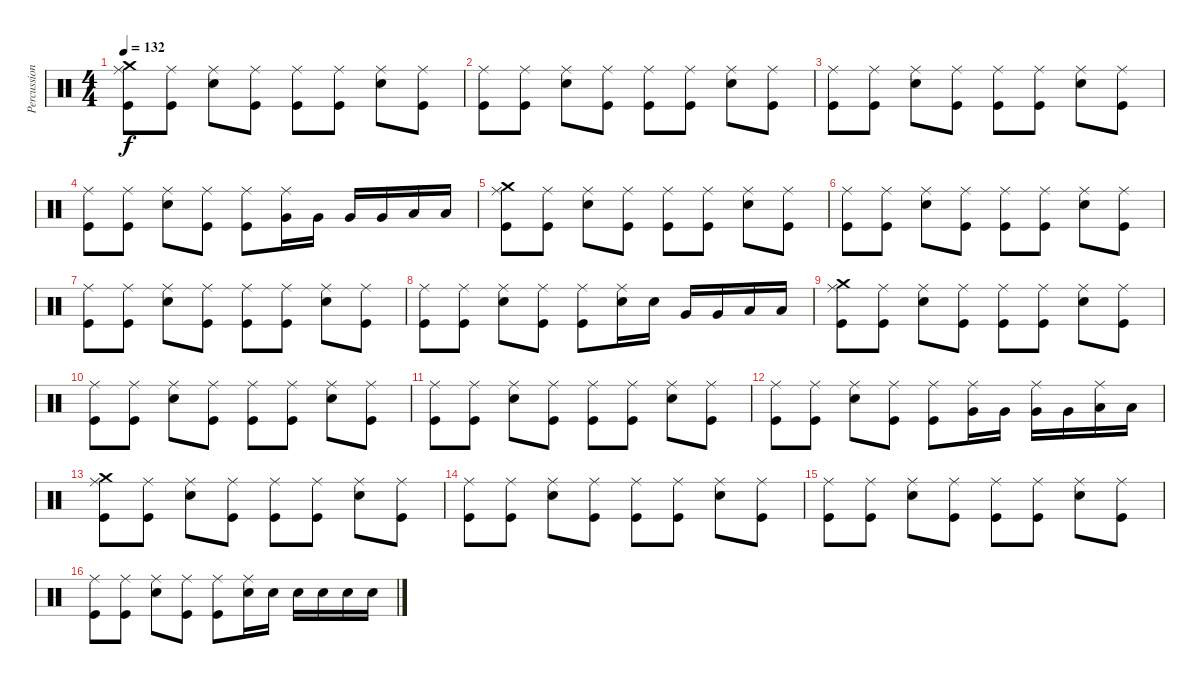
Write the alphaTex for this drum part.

\track ("Percussions" "Percussion") {instrument percussion}
\staff {score}
\articulation defaults
\ts (4 4)
\tempo 132
\clef neutral
\ks c
("Ride (middle)" "Crash medium (hit)" "Kick (hit)").8{dy f} ("Ride (middle)" "Kick (hit)").8 ("Ride (middle)" "Snare (hit) 2").8 ("Ride (middle)" "Kick (hit)").8 ("Ride (middle)" "Kick (hit)").8 ("Ride (middle)" "Kick (hit)").8 ("Ride (middle)" "Snare (hit) 2").8 ("Ride (middle)" "Kick (hit)").8 |
("Ride (middle)" "Kick (hit)").8 ("Ride (middle)" "Kick (hit)").8 ("Ride (middle)" "Snare (hit) 2").8 ("Ride (middle)" "Kick (hit)").8 ("Ride (middle)" "Kick (hit)").8 ("Ride (middle)" "Kick (hit)").8 ("Ride (middle)" "Snare (hit) 2").8 ("Ride (middle)" "Kick (hit)").8 |
("Ride (middle)" "Kick (hit)").8 ("Ride (middle)" "Kick (hit)").8 ("Ride (middle)" "Snare (hit) 2").8 ("Ride (middle)" "Kick (hit)").8 ("Ride (middle)" "Kick (hit)").8 ("Ride (middle)" "Kick (hit)").8 ("Ride (middle)" "Snare (hit) 2").8 ("Ride (middle)" "Kick (hit)").8 |
("Ride (middle)" "Kick (hit)").8 ("Ride (middle)" "Kick (hit)").8 ("Ride (middle)" "Snare (hit) 2").8 ("Ride (middle)" "Kick (hit)").8 ("Ride (middle)" "Kick (hit)").8 ("Ride (middle)" "Very Low Tom (hit)").16 "Very Low Tom (hit)".16 "Very Low Tom (hit)".16 "Very Low Tom (hit)".16 "Low Floor Tom (hit)".16 "Low Floor Tom (hit)".16 |
("Ride (middle)" "Crash medium (hit)" "Kick (hit)").8 ("Ride (middle)" "Kick (hit)").8 ("Ride (middle)" "Snare (hit) 2").8 ("Ride (middle)" "Kick (hit)").8 ("Ride (middle)" "Kick (hit)").8 ("Ride (middle)" "Kick (hit)").8 ("Ride (middle)" "Snare (hit) 2").8 ("Ride (middle)" "Kick (hit)").8 |
("Ride (middle)" "Kick (hit)").8 ("Ride (middle)" "Kick (hit)").8 ("Ride (middle)" "Snare (hit) 2").8 ("Ride (middle)" "Kick (hit)").8 ("Ride (middle)" "Kick (hit)").8 ("Ride (middle)" "Kick (hit)").8 ("Ride (middle)" "Snare (hit) 2").8 ("Ride (middle)" "Kick (hit)").8 |
("Ride (middle)" "Kick (hit)").8 ("Ride (middle)" "Kick (hit)").8 ("Ride (middle)" "Snare (hit) 2").8 ("Ride (middle)" "Kick (hit)").8 ("Ride (middle)" "Kick (hit)").8 ("Ride (middle)" "Kick (hit)").8 ("Ride (middle)" "Snare (hit) 2").8 ("Ride (middle)" "Kick (hit)").8 |
("Ride (middle)" "Kick (hit)").8 ("Ride (middle)" "Kick (hit)").8 ("Ride (middle)" "Snare (hit) 2").8 ("Ride (middle)" "Kick (hit)").8 ("Ride (middle)" "Kick (hit)").8 ("Ride (middle)" "Snare (hit) 2").16 "Snare (hit) 2".16 "Very Low Tom (hit)".16 "Very Low Tom (hit)".16 "Low Floor Tom (hit)".16 "Low Floor Tom (hit)".16 |
("Ride (middle)" "Crash medium (hit)" "Kick (hit)").8 ("Ride (middle)" "Kick (hit)").8 ("Ride (middle)" "Snare (hit) 2").8 ("Ride (middle)" "Kick (hit)").8 ("Ride (middle)" "Kick (hit)").8 ("Ride (middle)" "Kick (hit)").8 ("Ride (middle)" "Snare (hit) 2").8 ("Ride (middle)" "Kick (hit)").8 |
("Ride (middle)" "Kick (hit)").8 ("Ride (middle)" "Kick (hit)").8 ("Ride (middle)" "Snare (hit) 2").8 ("Ride (middle)" "Kick (hit)").8 ("Ride (middle)" "Kick (hit)").8 ("Ride (middle)" "Kick (hit)").8 ("Ride (middle)" "Snare (hit) 2").8 ("Ride (middle)" "Kick (hit)").8 |
("Ride (middle)" "Kick (hit)").8 ("Ride (middle)" "Kick (hit)").8 ("Ride (middle)" "Snare (hit) 2").8 ("Ride (middle)" "Kick (hit)").8 ("Ride (middle)" "Kick (hit)").8 ("Ride (middle)" "Kick (hit)").8 ("Ride (middle)" "Snare (hit) 2").8 ("Ride (middle)" "Kick (hit)").8 |
("Ride (middle)" "Kick (hit)").8 ("Ride (middle)" "Kick (hit)").8 ("Ride (middle)" "Snare (hit) 2").8 ("Ride (middle)" "Kick (hit)").8 ("Ride (middle)" "Kick (hit)").8 ("Ride (middle)" "Very Low Tom (hit)").16 "Very Low Tom (hit)".16 ("Ride (middle)" "Very Low Tom (hit)").16 "Very Low Tom (hit)".16 ("Ride (middle)" "Low Floor Tom (hit)").16 "Low Floor Tom (hit)".16 |
("Ride (middle)" "Crash medium (hit)" "Kick (hit)").8 ("Ride (middle)" "Kick (hit)").8 ("Ride (middle)" "Snare (hit) 2").8 ("Ride (middle)" "Kick (hit)").8 ("Ride (middle)" "Kick (hit)").8 ("Ride (middle)" "Kick (hit)").8 ("Ride (middle)" "Snare (hit) 2").8 ("Ride (middle)" "Kick (hit)").8 |
("Ride (middle)" "Kick (hit)").8 ("Ride (middle)" "Kick (hit)").8 ("Ride (middle)" "Snare (hit) 2").8 ("Ride (middle)" "Kick (hit)").8 ("Ride (middle)" "Kick (hit)").8 ("Ride (middle)" "Kick (hit)").8 ("Ride (middle)" "Snare (hit) 2").8 ("Ride (middle)" "Kick (hit)").8 |
("Ride (middle)" "Kick (hit)").8 ("Ride (middle)" "Kick (hit)").8 ("Ride (middle)" "Snare (hit) 2").8 ("Ride (middle)" "Kick (hit)").8 ("Ride (middle)" "Kick (hit)").8 ("Ride (middle)" "Kick (hit)").8 ("Ride (middle)" "Snare (hit) 2").8 ("Ride (middle)" "Kick (hit)").8 |
("Ride (middle)" "Kick (hit)").8 ("Ride (middle)" "Kick (hit)").8 ("Ride (middle)" "Snare (hit) 2").8 ("Ride (middle)" "Kick (hit)").8 ("Ride (middle)" "Kick (hit)").8 ("Ride (middle)" "Snare (hit) 2").16 "Snare (hit) 2".16 "Snare (hit) 2".16 "Snare (hit) 2".16 "Snare (hit) 2".16 "Snare (hit) 2".16
